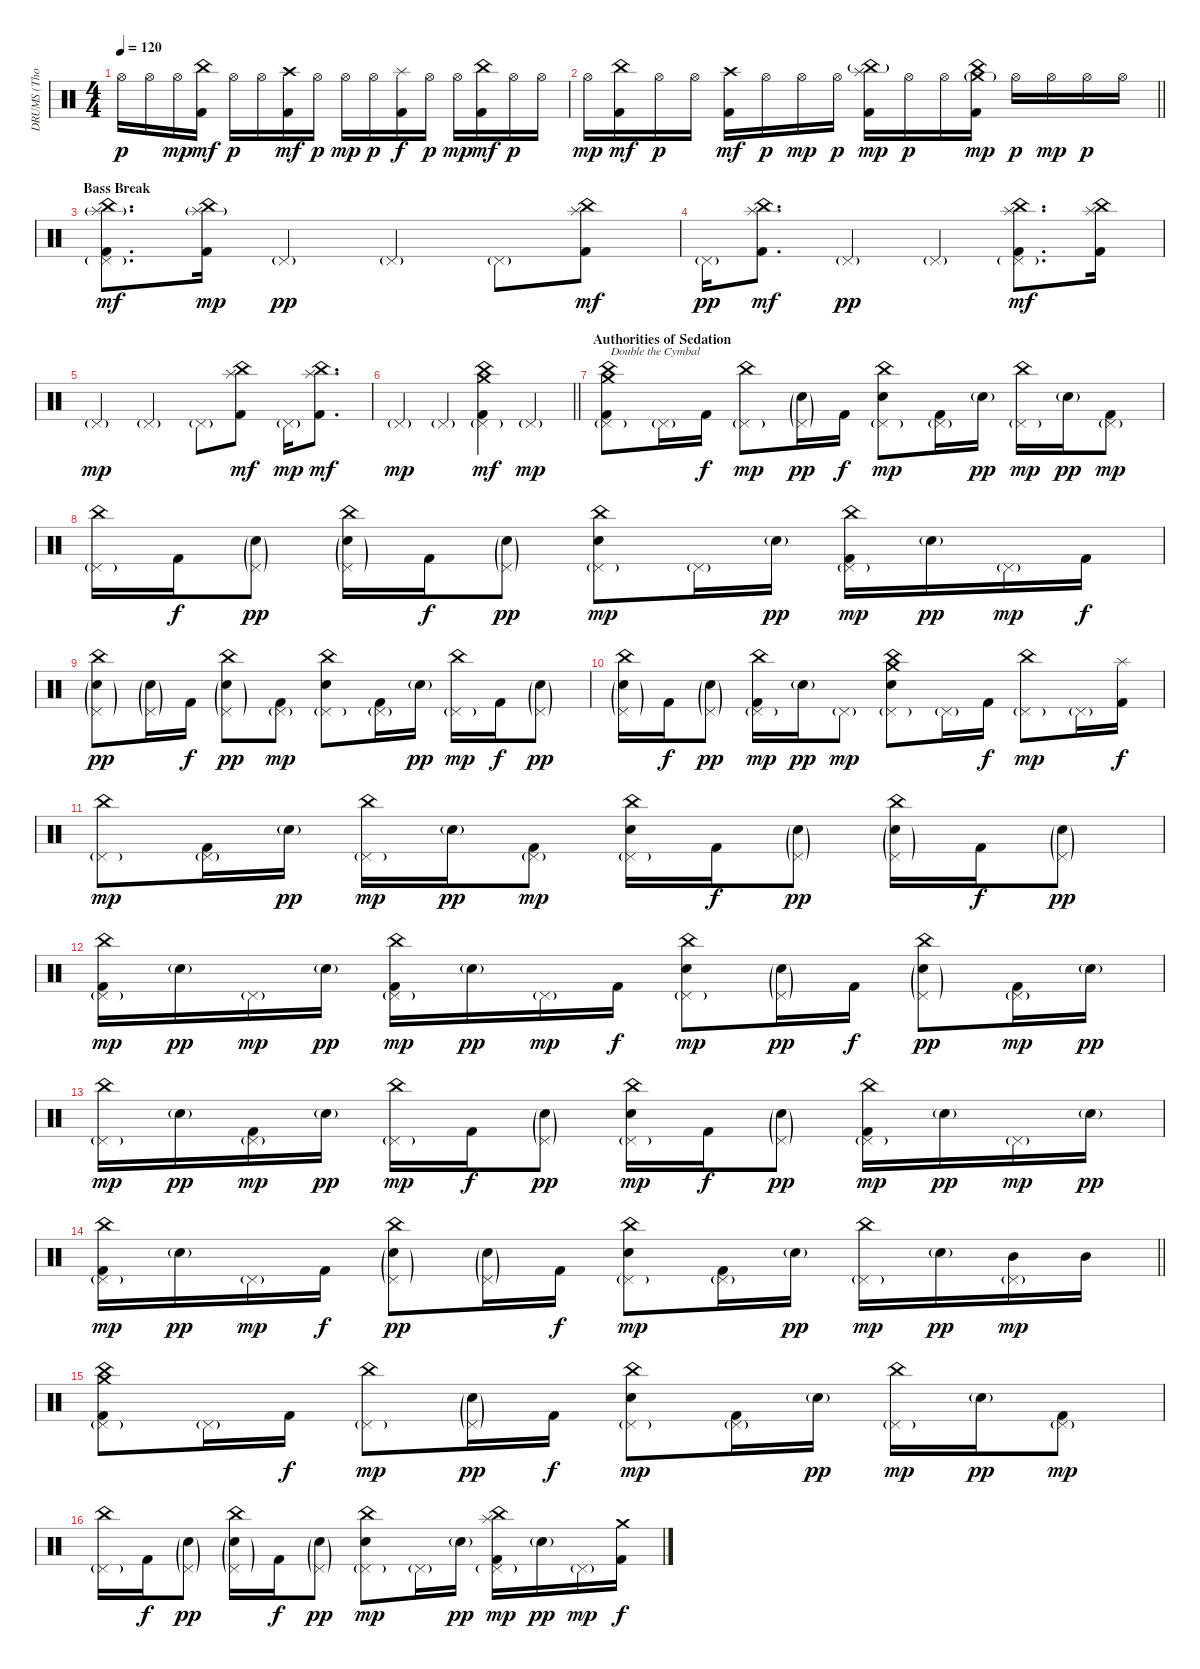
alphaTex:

\track ("DRUMS (Thomas Haake)" "DRUMS (Tho") {instrument percussion}
\staff {score}
\articulation defaults
\ts (4 4)
\tempo 120
\clef neutral
\ks c "Hi-Hat (open)".16{dy p} "Hi-Hat (open)".16 "Hi-Hat (open)".16{dy mp}
("China (hit)" "Kick (hit) 2").16{dy mf} "Hi-Hat (open)".16{dy p} "Hi-Hat (open)".16 ("Crash high (hit)" "Kick (hit) 2").16{dy mf} "Hi-Hat (open)".16{dy p} "Hi-Hat (open)".16{dy mp} "Hi-Hat (open)".16{dy p} ("Splash (hit)" "Kick (hit) 2").16{dy f} "Hi-Hat (open)".16{dy p} "Hi-Hat (open)".16{dy mp} ("China (hit)" "Kick (hit) 2").16{dy mf} "Hi-Hat (open)".16{dy p} "Hi-Hat (open)".16 |
\barLineRight lightlight "Hi-Hat (open)".16{dy mp}
("China (hit)" "Kick (hit) 2").16{dy mf} "Hi-Hat (open)".16{dy p} "Hi-Hat (open)".16 ("Crash high (hit)" "Kick (hit) 2").16{dy mf} "Hi-Hat (open)".16{dy p} "Hi-Hat (open)".16{dy mp} "Hi-Hat (open)".16{dy p} ("Splash (hit)" "China (hit)"{g} "Kick (hit) 2").16{dy mp} "Hi-Hat (open)".16{dy p} "Hi-Hat (open)".16 ("China (hit)" "Crash medium (hit)"{g} "Kick (hit) 2").16{dy mp} "Hi-Hat (open)".16{dy p} "Hi-Hat (open)".16{dy mp} "Hi-Hat (open)".16{dy p} "Hi-Hat (open)".16 |
\section ("" "Bass Break")
("Pedal Hi-Hat (hit)"{g} "China (hit)" "Splash (hit)"{g} "Kick (hit) 2").8{d dy mf} ("China (hit)" "Splash (hit)"{g} "Kick (hit) 2").16{dy mp} "Pedal Hi-Hat (hit)"{g}.4{dy pp} "Pedal Hi-Hat (hit)"{g}.4 "Pedal Hi-Hat (hit)"{g}.8 ("China (hit)" "Splash (hit)" "Kick (hit) 2").8{dy mf} |
"Pedal Hi-Hat (hit)"{g}.16{dy pp} ("China (hit)" "Splash (hit)" "Kick (hit) 2").8{d dy mf} "Pedal Hi-Hat (hit)"{g}.4{dy pp} "Pedal Hi-Hat (hit)"{g}.4 ("Pedal Hi-Hat (hit)"{g} "China (hit)" "Splash (hit)" "Kick (hit) 2").8{d dy mf} ("China (hit)" "Splash (hit)" "Kick (hit) 2").16 |
"Pedal Hi-Hat (hit)"{g}.4{dy mp} "Pedal Hi-Hat (hit)"{g}.4 "Pedal Hi-Hat (hit)"{g}.8 ("China (hit)" "Splash (hit)" "Kick (hit) 2").8{dy mf} "Pedal Hi-Hat (hit)"{g}.16{dy mp} ("China (hit)" "Splash (hit)" "Kick (hit) 2").8{d dy mf} |
\barLineRight lightlight "Pedal Hi-Hat (hit)"{g}.4{dy mp} "Pedal Hi-Hat (hit)"{g}.4
("Pedal Hi-Hat (hit)"{g} "China (hit)" "Crash medium (hit)" "Kick (hit) 2").4{dy mf} "Pedal Hi-Hat (hit)"{g}.4{dy mp} |
\section ("" "Authorities of Sedation")
("China (hit)" "Pedal Hi-Hat (hit)"{g} "Crash medium (hit)" "Kick (hit) 2").8{txt "Double the Cymbal"} "Pedal Hi-Hat (hit)"{g}.16 "Kick (hit) 2".16{dy f} ("China (hit)" "Pedal Hi-Hat (hit)"{g}).8{dy mp} ("Pedal Hi-Hat (hit)"{g} "Electric Snare (hit)"{g}).16{dy pp} "Kick (hit) 2".16{dy f} ("China (hit)" "Pedal Hi-Hat (hit)"{g} "Electric Snare (hit)").8{dy mp} ("Pedal Hi-Hat (hit)"{g} "Kick (hit) 2").16 "Electric Snare (hit)"{g}.16{dy pp} ("China (hit)" "Pedal Hi-Hat (hit)"{g}).16{dy mp} "Electric Snare (hit)"{g}.16{dy pp} ("Pedal Hi-Hat (hit)"{g} "Kick (hit) 2").8{dy mp} |
("China (hit)" "Pedal Hi-Hat (hit)"{g}).16 "Kick (hit) 2".16{dy f} ("Pedal Hi-Hat (hit)"{g} "Electric Snare (hit)"{g}).8{dy pp} ("China (hit)" "Pedal Hi-Hat (hit)"{g} "Electric Snare (hit)"{g}).16 "Kick (hit) 2".16{dy f} ("Pedal Hi-Hat (hit)"{g} "Electric Snare (hit)"{g}).8{dy pp} ("China (hit)" "Pedal Hi-Hat (hit)"{g} "Electric Snare (hit)").8{dy mp} "Pedal Hi-Hat (hit)"{g}.16 "Electric Snare (hit)"{g}.16{dy pp} ("China (hit)" "Pedal Hi-Hat (hit)"{g} "Kick (hit) 2").16{dy mp} "Electric Snare (hit)"{g}.16{dy pp} "Pedal Hi-Hat (hit)"{g}.16{dy mp} "Kick (hit) 2".16{dy f} |
("China (hit)" "Pedal Hi-Hat (hit)"{g} "Electric Snare (hit)"{g}).8{dy pp} ("Pedal Hi-Hat (hit)"{g} "Electric Snare (hit)"{g}).16 "Kick (hit) 2".16{dy f} ("China (hit)" "Pedal Hi-Hat (hit)"{g} "Electric Snare (hit)"{g}).8{dy pp} ("Pedal Hi-Hat (hit)"{g} "Kick (hit) 2").8{dy mp} ("China (hit)" "Pedal Hi-Hat (hit)"{g} "Electric Snare (hit)").8 ("Pedal Hi-Hat (hit)"{g} "Kick (hit) 2").16 "Electric Snare (hit)"{g}.16{dy pp} ("China (hit)" "Pedal Hi-Hat (hit)"{g}).16{dy mp} "Kick (hit) 2".16{dy f} ("Pedal Hi-Hat (hit)"{g} "Electric Snare (hit)"{g}).8{dy pp} |
("China (hit)" "Pedal Hi-Hat (hit)"{g} "Electric Snare (hit)"{g}).16 "Kick (hit) 2".16{dy f} ("Pedal Hi-Hat (hit)"{g} "Electric Snare (hit)"{g}).8{dy pp} ("China (hit)" "Pedal Hi-Hat (hit)"{g} "Kick (hit) 2").16{dy mp} "Electric Snare (hit)"{g}.16{dy pp} "Pedal Hi-Hat (hit)"{g}.8{dy mp} ("China (hit)" "Pedal Hi-Hat (hit)"{g} "Crash medium (hit)" "Electric Snare (hit)").8 "Pedal Hi-Hat (hit)"{g}.16 "Kick (hit) 2".16{dy f} ("China (hit)" "Pedal Hi-Hat (hit)"{g}).8{dy mp} "Pedal Hi-Hat (hit)"{g}.16 ("Splash (hit)" "Kick (hit) 2").16{dy f} |
("China (hit)" "Pedal Hi-Hat (hit)"{g}).8{dy mp} ("Pedal Hi-Hat (hit)"{g} "Kick (hit) 2").16 "Electric Snare (hit)"{g}.16{dy pp} ("China (hit)" "Pedal Hi-Hat (hit)"{g}).16{dy mp} "Electric Snare (hit)"{g}.16{dy pp} ("Pedal Hi-Hat (hit)"{g} "Kick (hit) 2").8{dy mp} ("China (hit)" "Pedal Hi-Hat (hit)"{g} "Electric Snare (hit)").16 "Kick (hit) 2".16{dy f} ("Pedal Hi-Hat (hit)"{g} "Electric Snare (hit)"{g}).8{dy pp} ("China (hit)" "Pedal Hi-Hat (hit)"{g} "Electric Snare (hit)"{g}).16 "Kick (hit) 2".16{dy f} ("Pedal Hi-Hat (hit)"{g} "Electric Snare (hit)"{g}).8{dy pp} |
("China (hit)" "Pedal Hi-Hat (hit)"{g} "Kick (hit) 2").16{dy mp} "Electric Snare (hit)"{g}.16{dy pp} "Pedal Hi-Hat (hit)"{g}.16{dy mp} "Electric Snare (hit)"{g}.16{dy pp} ("China (hit)" "Pedal Hi-Hat (hit)"{g} "Kick (hit) 2").16{dy mp} "Electric Snare (hit)"{g}.16{dy pp} "Pedal Hi-Hat (hit)"{g}.16{dy mp} "Kick (hit) 2".16{dy f} ("China (hit)" "Pedal Hi-Hat (hit)"{g} "Electric Snare (hit)").8{dy mp} ("Pedal Hi-Hat (hit)"{g} "Electric Snare (hit)"{g}).16{dy pp} "Kick (hit) 2".16{dy f} ("China (hit)" "Pedal Hi-Hat (hit)"{g} "Electric Snare (hit)"{g}).8{dy pp} ("Pedal Hi-Hat (hit)"{g} "Kick (hit) 2").16{dy mp} "Electric Snare (hit)"{g}.16{dy pp} |
("China (hit)" "Pedal Hi-Hat (hit)"{g}).16{dy mp} "Electric Snare (hit)"{g}.16{dy pp} ("Pedal Hi-Hat (hit)"{g} "Kick (hit) 2").16{dy mp} "Electric Snare (hit)"{g}.16{dy pp} ("China (hit)" "Pedal Hi-Hat (hit)"{g}).16{dy mp} "Kick (hit) 2".16{dy f} ("Pedal Hi-Hat (hit)"{g} "Electric Snare (hit)"{g}).8{dy pp} ("China (hit)" "Pedal Hi-Hat (hit)"{g} "Electric Snare (hit)").16{dy mp} "Kick (hit) 2".16{dy f} ("Pedal Hi-Hat (hit)"{g} "Electric Snare (hit)"{g}).8{dy pp} ("China (hit)" "Pedal Hi-Hat (hit)"{g} "Kick (hit) 2").16{dy mp} "Electric Snare (hit)"{g}.16{dy pp} "Pedal Hi-Hat (hit)"{g}.16{dy mp} "Electric Snare (hit)"{g}.16{dy pp} |
\barLineRight lightlight
("China (hit)" "Pedal Hi-Hat (hit)"{g} "Kick (hit) 2").16{dy mp} "Electric Snare (hit)"{g}.16{dy pp} "Pedal Hi-Hat (hit)"{g}.16{dy mp} "Kick (hit) 2".16{dy f} ("China (hit)" "Pedal Hi-Hat (hit)"{g} "Electric Snare (hit)"{g}).8{dy pp} ("Pedal Hi-Hat (hit)"{g} "Electric Snare (hit)"{g}).16 "Kick (hit) 2".16{dy f} ("China (hit)" "Pedal Hi-Hat (hit)"{g} "Electric Snare (hit)").8{dy mp} ("Pedal Hi-Hat (hit)"{g} "Kick (hit) 2").16 "Electric Snare (hit)"{g}.16{dy pp} ("China (hit)" "Pedal Hi-Hat (hit)"{g}).16{dy mp} "Electric Snare (hit)"{g}.16{dy pp} ("Pedal Hi-Hat (hit)"{g} "Mid Tom (hit)").16{dy mp} "Mid Tom (hit)".16 |
("China (hit)" "Pedal Hi-Hat (hit)"{g} "Crash medium (hit)" "Kick (hit) 2").8 "Pedal Hi-Hat (hit)"{g}.16 "Kick (hit) 2".16{dy f} ("China (hit)" "Pedal Hi-Hat (hit)"{g}).8{dy mp} ("Pedal Hi-Hat (hit)"{g} "Electric Snare (hit)"{g}).16{dy pp} "Kick (hit) 2".16{dy f} ("China (hit)" "Pedal Hi-Hat (hit)"{g} "Electric Snare (hit)").8{dy mp} ("Pedal Hi-Hat (hit)"{g} "Kick (hit) 2").16 "Electric Snare (hit)"{g}.16{dy pp} ("China (hit)" "Pedal Hi-Hat (hit)"{g}).16{dy mp} "Electric Snare (hit)"{g}.16{dy pp} ("Pedal Hi-Hat (hit)"{g} "Kick (hit) 2").8{dy mp} |
("China (hit)" "Pedal Hi-Hat (hit)"{g}).16 "Kick (hit) 2".16{dy f} ("Pedal Hi-Hat (hit)"{g} "Electric Snare (hit)"{g}).8{dy pp} ("China (hit)" "Pedal Hi-Hat (hit)"{g} "Electric Snare (hit)"{g}).16 "Kick (hit) 2".16{dy f} ("Pedal Hi-Hat (hit)"{g} "Electric Snare (hit)"{g}).8{dy pp} ("China (hit)" "Pedal Hi-Hat (hit)"{g} "Electric Snare (hit)").8{dy mp} "Pedal Hi-Hat (hit)"{g}.16 "Electric Snare (hit)"{g}.16{dy pp} ("China (hit)" "Pedal Hi-Hat (hit)"{g} "Splash (hit)" "Kick (hit) 2").16{dy mp} "Electric Snare (hit)"{g}.16{dy pp} "Pedal Hi-Hat (hit)"{g}.16{dy mp} ("Crash medium (hit)" "Kick (hit) 2").16{dy f}
